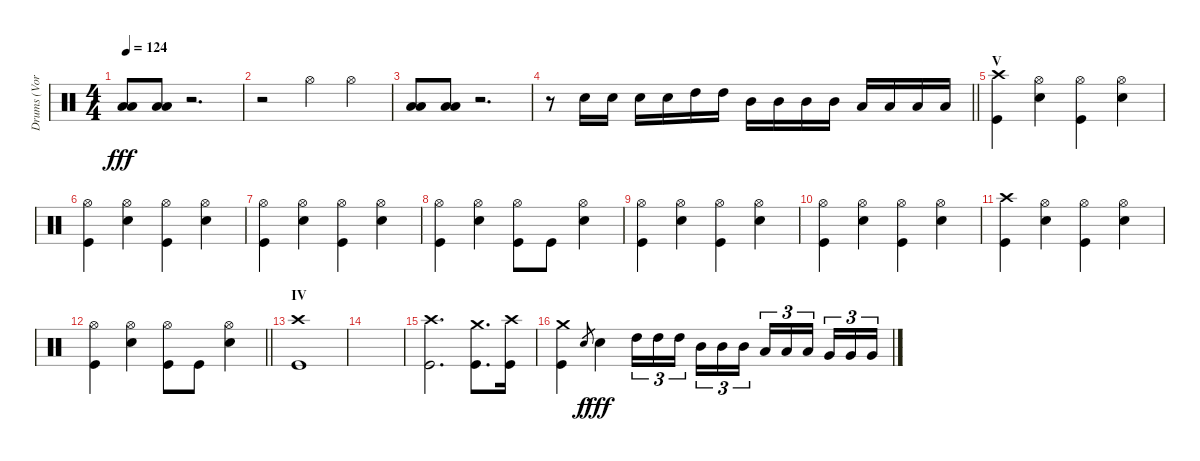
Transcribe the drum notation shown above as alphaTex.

\track ("Drums (Vortex)" "Drums (Vor") {instrument percussion}
\staff {score}
\articulation defaults
\ts (4 4)
\tempo 124
\clef neutral
\ks c
("Low Tom (hit)" "Low Floor Tom (hit)").8{dy fff} ("Low Tom (hit)" "Low Floor Tom (hit)").8 r.2{d} |
r.2 "Hi-Hat (open)".4 "Hi-Hat (open)".4 |
("Low Tom (hit)" "Low Floor Tom (hit)").8 ("Low Tom (hit)" "Low Floor Tom (hit)").8 r.2{d} |
\barLineRight lightlight
r.8 "Snare (hit) 2".16 "Snare (hit) 2".16 "Snare (hit) 2".16 "Snare (hit) 2".16 "High Tom (hit)".16 "High Tom (hit)".16 "Mid Tom (hit)".16 "Mid Tom (hit)".16 "Mid Tom (hit)".16 "Mid Tom (hit)".16 "Low Tom (hit)".16 "Low Tom (hit)".16 "Low Tom (hit)".16 "Low Tom (hit)".16 |
\section ("" "V")
("Crash high (hit)" "Kick (hit)").4 ("Snare (hit) 2" "Hi-Hat (open)").4 ("Kick (hit)" "Hi-Hat (open)").4 ("Snare (hit) 2" "Hi-Hat (open)").4 |
("Kick (hit)" "Hi-Hat (open)").4 ("Snare (hit) 2" "Hi-Hat (open)").4 ("Kick (hit)" "Hi-Hat (open)").4 ("Snare (hit) 2" "Hi-Hat (open)").4 |
("Kick (hit)" "Hi-Hat (open)").4 ("Snare (hit) 2" "Hi-Hat (open)").4 ("Kick (hit)" "Hi-Hat (open)").4 ("Snare (hit) 2" "Hi-Hat (open)").4 |
("Kick (hit)" "Hi-Hat (open)").4 ("Snare (hit) 2" "Hi-Hat (open)").4 ("Kick (hit)" "Hi-Hat (open)").8 "Kick (hit)".8 ("Snare (hit) 2" "Hi-Hat (open)").4 |
("Kick (hit)" "Hi-Hat (open)").4 ("Snare (hit) 2" "Hi-Hat (open)").4 ("Kick (hit)" "Hi-Hat (open)").4 ("Snare (hit) 2" "Hi-Hat (open)").4 |
("Kick (hit)" "Hi-Hat (open)").4 ("Snare (hit) 2" "Hi-Hat (open)").4 ("Kick (hit)" "Hi-Hat (open)").4 ("Snare (hit) 2" "Hi-Hat (open)").4 |
("Crash high (hit)" "Kick (hit)").4 ("Snare (hit) 2" "Hi-Hat (open)").4 ("Kick (hit)" "Hi-Hat (open)").4 ("Snare (hit) 2" "Hi-Hat (open)").4 |
\barLineRight lightlight
("Kick (hit)" "Hi-Hat (open)").4 ("Snare (hit) 2" "Hi-Hat (open)").4 ("Kick (hit)" "Hi-Hat (open)").8 "Kick (hit)".8 ("Snare (hit) 2" "Hi-Hat (open)").4 |
\section ("" "IV")
("Crash high (hit)" "Kick (hit)").1 |
|
("Crash high (hit)" "Kick (hit)").2{d} ("Crash medium (hit)" "Kick (hit)").8{d} ("Crash high (hit)" "Kick (hit)").16 |
("Crash medium (hit)" "Kick (hit)").4 "Snare (hit) 2".8{gr dy f} "Snare (hit) 2".4{dy fff} "High Tom (hit)".16{tu (3 2)} "High Tom (hit)".16{tu (3 2)} "High Tom (hit)".16{tu (3 2) beam splitsecondary} "Mid Tom (hit)".16{tu (3 2)} "Mid Tom (hit)".16{tu (3 2)} "Mid Tom (hit)".16{tu (3 2)} "Low Tom (hit)".16{tu (3 2)} "Low Tom (hit)".16{tu (3 2)} "Low Tom (hit)".16{tu (3 2) beam splitsecondary} "Very Low Tom (hit)".16{tu (3 2)} "Very Low Tom (hit)".16{tu (3 2)} "Very Low Tom (hit)".16{tu (3 2)}
